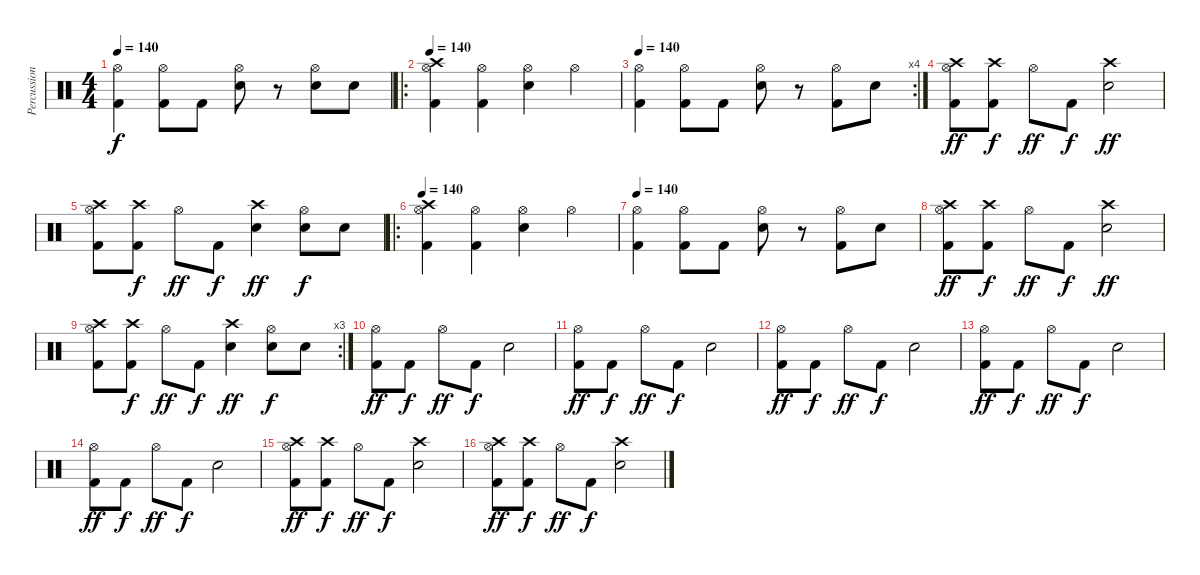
\track ("Percussions" "Percussion") {instrument percussion}
\staff {score}
\articulation defaults
\ts (4 4)
\tempo 140
\clef neutral
\ks c
("Hi-Hat (open)" "Kick (hit) 2").4{dy f} ("Hi-Hat (open)" "Kick (hit) 2").8 "Kick (hit) 2".8 ("Hi-Hat (open)" "Snare (hit) 2").8 r.8 ("Hi-Hat (open)" "Snare (hit) 2").8 "Snare (hit) 2".8 |
\ro
\tempo 140
("Hi-Hat (open)" "Crash high (hit)" "Kick (hit) 2").4 ("Hi-Hat (open)" "Kick (hit) 2").4 ("Hi-Hat (open)" "Snare (hit) 2").4 "Hi-Hat (open)".4 |
\rc 4
\tempo 140
("Hi-Hat (open)" "Kick (hit) 2").4 ("Hi-Hat (open)" "Kick (hit) 2").8 "Kick (hit) 2".8 ("Hi-Hat (open)" "Snare (hit) 2").8 r.8 ("Hi-Hat (open)" "Kick (hit) 2").8 "Snare (hit) 2".8 |
("Hi-Hat (open)" "Crash high (hit)" "Kick (hit) 2").8{dy ff} ("Crash high (hit)" "Kick (hit) 2").8{dy f} "Hi-Hat (open)".8{dy ff} "Kick (hit) 2".8{dy f} ("Crash high (hit)" "Snare (hit) 2").2{dy ff} |
("Hi-Hat (open)" "Crash high (hit)" "Kick (hit) 2").8 ("Crash high (hit)" "Kick (hit) 2").8{dy f} "Hi-Hat (open)".8{dy ff} "Kick (hit) 2".8{dy f} ("Crash high (hit)" "Snare (hit) 2").4{dy ff} ("Hi-Hat (open)" "Snare (hit) 2").8{dy f} "Snare (hit) 2".8 |
\ro
\tempo 140
("Hi-Hat (open)" "Crash high (hit)" "Kick (hit) 2").4 ("Hi-Hat (open)" "Kick (hit) 2").4 ("Hi-Hat (open)" "Snare (hit) 2").4 "Hi-Hat (open)".4 |
\tempo 140
("Hi-Hat (open)" "Kick (hit) 2").4 ("Hi-Hat (open)" "Kick (hit) 2").8 "Kick (hit) 2".8 ("Hi-Hat (open)" "Snare (hit) 2").8 r.8 ("Hi-Hat (open)" "Kick (hit) 2").8 "Snare (hit) 2".8 |
("Hi-Hat (open)" "Crash high (hit)" "Kick (hit) 2").8{dy ff} ("Crash high (hit)" "Kick (hit) 2").8{dy f} "Hi-Hat (open)".8{dy ff} "Kick (hit) 2".8{dy f} ("Crash high (hit)" "Snare (hit) 2").2{dy ff} |
\rc 3
("Hi-Hat (open)" "Crash high (hit)" "Kick (hit) 2").8 ("Crash high (hit)" "Kick (hit) 2").8{dy f} "Hi-Hat (open)".8{dy ff} "Kick (hit) 2".8{dy f} ("Crash high (hit)" "Snare (hit) 2").4{dy ff} ("Hi-Hat (open)" "Snare (hit) 2").8{dy f} "Snare (hit) 2".8 |
("Hi-Hat (open)" "Kick (hit) 2").8{dy ff} "Kick (hit) 2".8{dy f} "Hi-Hat (open)".8{dy ff} "Kick (hit) 2".8{dy f} "Snare (hit) 2".2 |
("Hi-Hat (open)" "Kick (hit) 2").8{dy ff} "Kick (hit) 2".8{dy f} "Hi-Hat (open)".8{dy ff} "Kick (hit) 2".8{dy f} "Snare (hit) 2".2 |
("Hi-Hat (open)" "Kick (hit) 2").8{dy ff} "Kick (hit) 2".8{dy f} "Hi-Hat (open)".8{dy ff} "Kick (hit) 2".8{dy f} "Snare (hit) 2".2 |
("Hi-Hat (open)" "Kick (hit) 2").8{dy ff} "Kick (hit) 2".8{dy f} "Hi-Hat (open)".8{dy ff} "Kick (hit) 2".8{dy f} "Snare (hit) 2".2 |
("Hi-Hat (open)" "Kick (hit) 2").8{dy ff} "Kick (hit) 2".8{dy f} "Hi-Hat (open)".8{dy ff} "Kick (hit) 2".8{dy f} "Snare (hit) 2".2 |
("Hi-Hat (open)" "Crash high (hit)" "Kick (hit) 2").8{dy ff} ("Crash high (hit)" "Kick (hit) 2").8{dy f} "Hi-Hat (open)".8{dy ff} "Kick (hit) 2".8{dy f} ("Crash high (hit)" "Snare (hit) 2").2 |
("Hi-Hat (open)" "Crash high (hit)" "Kick (hit) 2").8{dy ff} ("Crash high (hit)" "Kick (hit) 2").8{dy f} "Hi-Hat (open)".8{dy ff} "Kick (hit) 2".8{dy f} ("Crash high (hit)" "Snare (hit) 2").2
